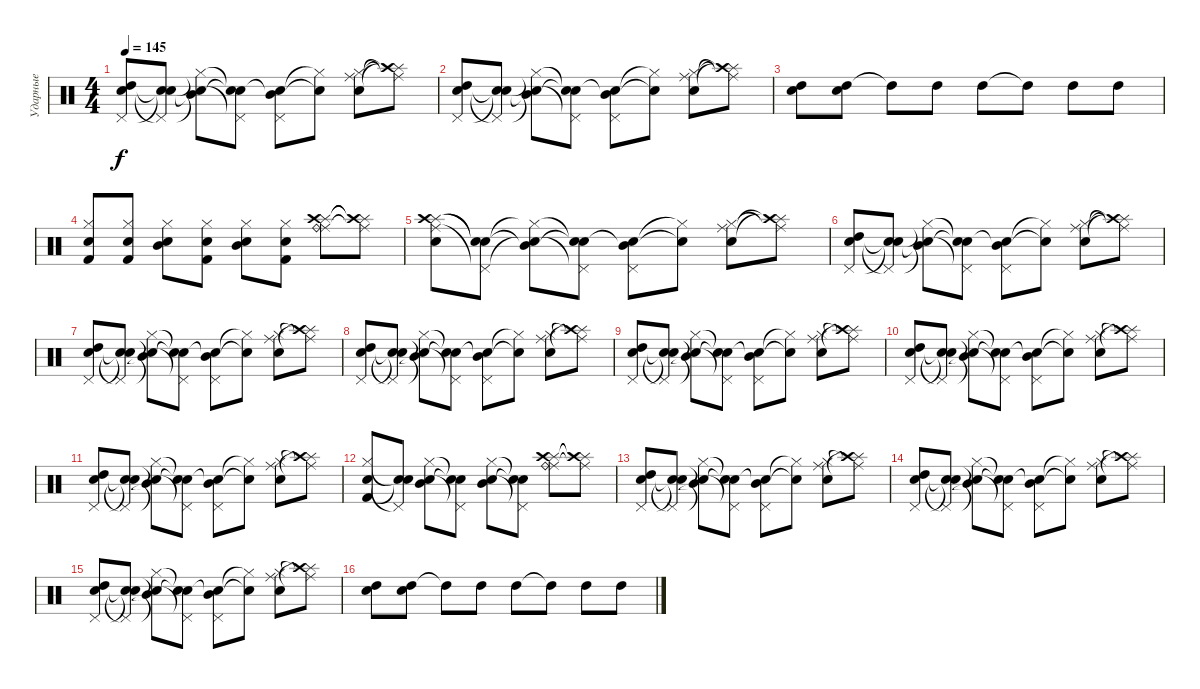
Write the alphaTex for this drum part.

\track ("Ударные" "Ударные") {instrument percussion}
\staff {score}
\articulation defaults
\ts (4 4)
\tempo 145
\clef neutral
\ks c
("High Tom (hit)" "Snare (hit) 2" "Pedal Hi-Hat (hit)").8{dy f} ("Snare (hit)"{t} "Pedal Hi-Hat (hit)"{t} "Snare (hit)"{t}).8 ("Mid Tom (hit)"{t} "Electric Snare (hit)"{t} "Hi-Hat (closed)"{t}).8 ("Snare (hit)"{t} "Pedal Hi-Hat (hit)"{t} "Snare (hit)"{t}).8 ("Mid Tom (hit)"{t} "Snare (hit) 2" "Pedal Hi-Hat (hit)").8 ("Snare (hit) 2"{t} "Hi-Hat (closed)"{t}).8 ("Snare (hit) 2" "Hi-Hat (closed)" "Ride (middle)").8 ("Splash (hit)"{t} "Ride (middle)"{t} "Crash high (hit)"{t}).8 |
("High Tom (hit)" "Snare (hit) 2" "Pedal Hi-Hat (hit)").8 ("Snare (hit)"{t} "Pedal Hi-Hat (hit)"{t} "Snare (hit)"{t}).8 ("Mid Tom (hit)"{t} "Electric Snare (hit)"{t} "Hi-Hat (closed)"{t}).8 ("Snare (hit)"{t} "Pedal Hi-Hat (hit)"{t} "Snare (hit)"{t}).8 ("Mid Tom (hit)"{t} "Snare (hit) 2" "Pedal Hi-Hat (hit)").8 ("Snare (hit) 2"{t} "Hi-Hat (closed)"{t}).8 ("Snare (hit) 2" "Hi-Hat (closed)" "Ride (middle)").8 ("Splash (hit)"{t} "Ride (middle)"{t} "Crash high (hit)"{t}).8 |
("High Tom (hit)" "Electric Snare (hit)").8 ("High Tom (hit)" "Electric Snare (hit)").8 "High Tom (hit)"{t}.8 "High Tom (hit)".8 "High Tom (hit)".8 "High Tom (hit)"{t}.8 "High Tom (hit)".8 "High Tom (hit)".8 |
("Kick (hit) 2" "Snare (hit) 2" "Hi-Hat (closed)").8 ("Kick (hit) 2" "Snare (hit) 2" "Hi-Hat (closed)").8 ("Mid Tom (hit)" "Electric Snare (hit)" "Hi-Hat (closed)").8 ("Kick (hit) 2" "Snare (hit) 2" "Hi-Hat (closed)").8 ("Mid Tom (hit)" "Electric Snare (hit)" "Hi-Hat (closed)").8 ("Kick (hit) 2" "Snare (hit) 2" "Hi-Hat (closed)").8 ("Splash (hit)" "Ride (middle)" "Crash high (hit)" "Ride (bell)").8 ("Splash (hit)"{t} "Ride (middle)"{t} "Crash high (hit)"{t}).8 |
("Splash (hit)" "Ride (middle)" "Crash high (hit)" "Snare (hit) 2").8 ("Snare (hit)"{t} "Pedal Hi-Hat (hit)"{t} "Snare (hit)"{t}).8 ("Mid Tom (hit)"{t} "Electric Snare (hit)"{t} "Hi-Hat (closed)"{t}).8 ("Snare (hit)"{t} "Pedal Hi-Hat (hit)"{t} "Snare (hit)"{t}).8 ("Mid Tom (hit)"{t} "Snare (hit) 2" "Pedal Hi-Hat (hit)").8 ("Snare (hit) 2"{t} "Hi-Hat (closed)"{t}).8 ("Snare (hit) 2" "Hi-Hat (closed)" "Ride (middle)").8 ("Splash (hit)"{t} "Ride (middle)"{t} "Crash high (hit)"{t}).8 |
("High Tom (hit)" "Snare (hit) 2" "Pedal Hi-Hat (hit)").8 ("Snare (hit)"{t} "Pedal Hi-Hat (hit)"{t} "Snare (hit)"{t}).8 ("Mid Tom (hit)"{t} "Electric Snare (hit)"{t} "Hi-Hat (closed)"{t}).8 ("Snare (hit)"{t} "Pedal Hi-Hat (hit)"{t} "Snare (hit)"{t}).8 ("Mid Tom (hit)"{t} "Snare (hit) 2" "Pedal Hi-Hat (hit)").8 ("Snare (hit) 2"{t} "Hi-Hat (closed)"{t}).8 ("Snare (hit) 2" "Hi-Hat (closed)" "Ride (middle)").8 ("Splash (hit)"{t} "Ride (middle)"{t} "Crash high (hit)"{t}).8 |
("High Tom (hit)" "Snare (hit) 2" "Pedal Hi-Hat (hit)").8 ("Snare (hit)"{t} "Pedal Hi-Hat (hit)"{t} "Snare (hit)"{t}).8 ("Mid Tom (hit)"{t} "Electric Snare (hit)"{t} "Hi-Hat (closed)"{t}).8 ("Snare (hit)"{t} "Pedal Hi-Hat (hit)"{t} "Snare (hit)"{t}).8 ("Mid Tom (hit)"{t} "Snare (hit) 2" "Pedal Hi-Hat (hit)").8 ("Snare (hit) 2"{t} "Hi-Hat (closed)"{t}).8 ("Snare (hit) 2" "Hi-Hat (closed)" "Ride (middle)").8 ("Splash (hit)"{t} "Ride (middle)"{t} "Crash high (hit)"{t}).8 |
("High Tom (hit)" "Snare (hit) 2" "Pedal Hi-Hat (hit)").8 ("Snare (hit)"{t} "Pedal Hi-Hat (hit)"{t} "Snare (hit)"{t}).8 ("Mid Tom (hit)"{t} "Electric Snare (hit)"{t} "Hi-Hat (closed)"{t}).8 ("Snare (hit)"{t} "Pedal Hi-Hat (hit)"{t} "Snare (hit)"{t}).8 ("Mid Tom (hit)"{t} "Snare (hit) 2" "Pedal Hi-Hat (hit)").8 ("Snare (hit) 2"{t} "Hi-Hat (closed)"{t}).8 ("Snare (hit) 2" "Hi-Hat (closed)" "Ride (middle)").8 ("Splash (hit)"{t} "Ride (middle)"{t} "Crash high (hit)"{t}).8 |
("High Tom (hit)" "Snare (hit) 2" "Pedal Hi-Hat (hit)").8 ("Snare (hit)"{t} "Pedal Hi-Hat (hit)"{t} "Snare (hit)"{t}).8 ("Mid Tom (hit)"{t} "Electric Snare (hit)"{t} "Hi-Hat (closed)"{t}).8 ("Snare (hit)"{t} "Pedal Hi-Hat (hit)"{t} "Snare (hit)"{t}).8 ("Mid Tom (hit)"{t} "Snare (hit) 2" "Pedal Hi-Hat (hit)").8 ("Snare (hit) 2"{t} "Hi-Hat (closed)"{t}).8 ("Snare (hit) 2" "Hi-Hat (closed)" "Ride (middle)").8 ("Splash (hit)"{t} "Ride (middle)"{t} "Crash high (hit)"{t}).8 |
("High Tom (hit)" "Snare (hit) 2" "Pedal Hi-Hat (hit)").8 ("Snare (hit)"{t} "Pedal Hi-Hat (hit)"{t} "Snare (hit)"{t}).8 ("Mid Tom (hit)"{t} "Electric Snare (hit)"{t} "Hi-Hat (closed)"{t}).8 ("Snare (hit)"{t} "Pedal Hi-Hat (hit)"{t} "Snare (hit)"{t}).8 ("Mid Tom (hit)"{t} "Snare (hit) 2" "Pedal Hi-Hat (hit)").8 ("Snare (hit) 2"{t} "Hi-Hat (closed)"{t}).8 ("Snare (hit) 2" "Hi-Hat (closed)" "Ride (middle)").8 ("Splash (hit)"{t} "Ride (middle)"{t} "Crash high (hit)"{t}).8 |
("High Tom (hit)" "Snare (hit) 2" "Pedal Hi-Hat (hit)").8 ("Snare (hit)"{t} "Pedal Hi-Hat (hit)"{t} "Snare (hit)"{t}).8 ("Mid Tom (hit)"{t} "Electric Snare (hit)"{t} "Hi-Hat (closed)"{t}).8 ("Snare (hit)"{t} "Pedal Hi-Hat (hit)"{t} "Snare (hit)"{t}).8 ("Mid Tom (hit)"{t} "Snare (hit) 2" "Pedal Hi-Hat (hit)").8 ("Snare (hit) 2"{t} "Hi-Hat (closed)"{t}).8 ("Snare (hit) 2" "Hi-Hat (closed)" "Ride (middle)").8 ("Splash (hit)"{t} "Ride (middle)"{t} "Crash high (hit)"{t}).8 |
("Kick (hit) 2" "Snare (hit) 2" "Hi-Hat (closed)").8 ("Snare (hit)"{t} "Pedal Hi-Hat (hit)"{t} "Snare (hit)"{t}).8 ("Mid Tom (hit)" "Electric Snare (hit)" "Hi-Hat (closed)").8 ("Snare (hit)"{t} "Pedal Hi-Hat (hit)"{t} "Snare (hit)"{t}).8 ("Mid Tom (hit)" "Electric Snare (hit)" "Hi-Hat (closed)").8 ("Snare (hit)"{t} "Pedal Hi-Hat (hit)"{t} "Snare (hit)"{t}).8 ("Splash (hit)" "Ride (middle)" "Crash high (hit)" "Ride (bell)").8 ("Splash (hit)"{t} "Ride (middle)"{t} "Crash high (hit)"{t}).8 |
("High Tom (hit)" "Snare (hit) 2" "Pedal Hi-Hat (hit)").8 ("Snare (hit)"{t} "Pedal Hi-Hat (hit)"{t} "Snare (hit)"{t}).8 ("Mid Tom (hit)"{t} "Electric Snare (hit)"{t} "Hi-Hat (closed)"{t}).8 ("Snare (hit)"{t} "Pedal Hi-Hat (hit)"{t} "Snare (hit)"{t}).8 ("Mid Tom (hit)"{t} "Snare (hit) 2" "Pedal Hi-Hat (hit)").8 ("Snare (hit) 2"{t} "Hi-Hat (closed)"{t}).8 ("Snare (hit) 2" "Hi-Hat (closed)" "Ride (middle)").8 ("Splash (hit)"{t} "Ride (middle)"{t} "Crash high (hit)"{t}).8 |
("High Tom (hit)" "Snare (hit) 2" "Pedal Hi-Hat (hit)").8 ("Snare (hit)"{t} "Pedal Hi-Hat (hit)"{t} "Snare (hit)"{t}).8 ("Mid Tom (hit)"{t} "Electric Snare (hit)"{t} "Hi-Hat (closed)"{t}).8 ("Snare (hit)"{t} "Pedal Hi-Hat (hit)"{t} "Snare (hit)"{t}).8 ("Mid Tom (hit)"{t} "Snare (hit) 2" "Pedal Hi-Hat (hit)").8 ("Snare (hit) 2"{t} "Hi-Hat (closed)"{t}).8 ("Snare (hit) 2" "Hi-Hat (closed)" "Ride (middle)").8 ("Splash (hit)"{t} "Ride (middle)"{t} "Crash high (hit)"{t}).8 |
("High Tom (hit)" "Snare (hit) 2" "Pedal Hi-Hat (hit)").8 ("Snare (hit)"{t} "Pedal Hi-Hat (hit)"{t} "Snare (hit)"{t}).8 ("Mid Tom (hit)"{t} "Electric Snare (hit)"{t} "Hi-Hat (closed)"{t}).8 ("Snare (hit)"{t} "Pedal Hi-Hat (hit)"{t} "Snare (hit)"{t}).8 ("Mid Tom (hit)"{t} "Snare (hit) 2" "Pedal Hi-Hat (hit)").8 ("Snare (hit) 2"{t} "Hi-Hat (closed)"{t}).8 ("Snare (hit) 2" "Hi-Hat (closed)" "Ride (middle)").8 ("Splash (hit)"{t} "Ride (middle)"{t} "Crash high (hit)"{t}).8 |
("High Tom (hit)" "Electric Snare (hit)").8 ("High Tom (hit)" "Electric Snare (hit)").8 "High Tom (hit)"{t}.8 "High Tom (hit)".8 "High Tom (hit)".8 "High Tom (hit)"{t}.8 "High Tom (hit)".8 "High Tom (hit)".8
